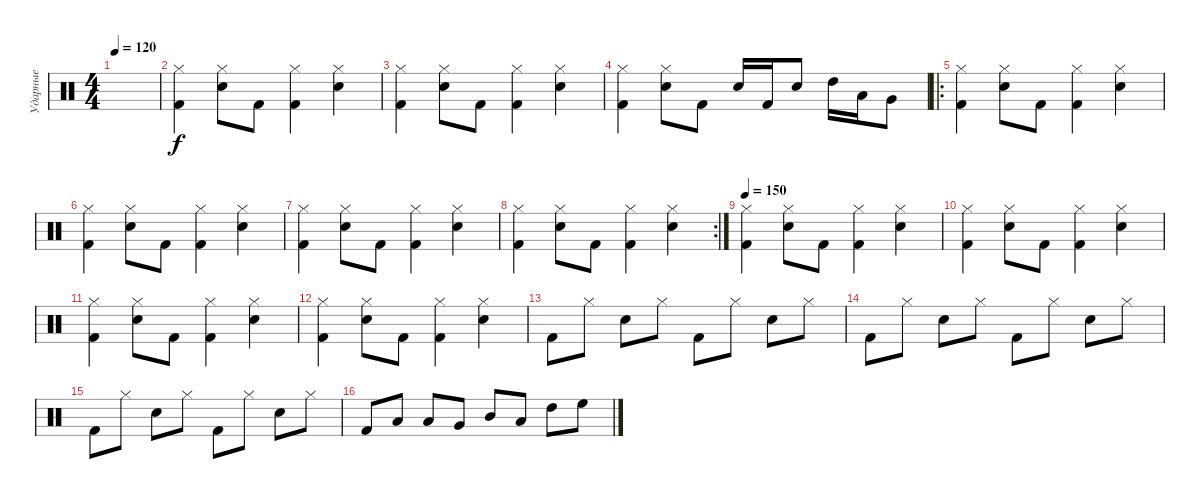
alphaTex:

\track ("Ударные" "Ударные") {instrument percussion}
\staff {score}
\articulation defaults
\ts (4 4)
\tempo 120
\clef neutral
\ks c
|
\ks aminor
("Hi-Hat (closed)" "Kick (hit) 2").4 ("Hi-Hat (closed)" "Electric Snare (hit)").8 "Kick (hit) 2".8 ("Hi-Hat (closed)" "Kick (hit) 2").4 ("Hi-Hat (closed)" "Electric Snare (hit)").4 |
("Hi-Hat (closed)" "Kick (hit) 2").4 ("Hi-Hat (closed)" "Electric Snare (hit)").8 "Kick (hit) 2".8 ("Hi-Hat (closed)" "Kick (hit) 2").4 ("Hi-Hat (closed)" "Electric Snare (hit)").4 |
\ks c
("Hi-Hat (closed)" "Kick (hit) 2").4 ("Hi-Hat (closed)" "Electric Snare (hit)").8 "Kick (hit) 2".8 "Electric Snare (hit)".16 "Kick (hit) 2".16 "Electric Snare (hit)".8 "High Tom (hit)".16 "Low Tom (hit)".16 "Very Low Tom (hit)".8 |
\ro
\ks aminor
("Hi-Hat (closed)" "Kick (hit) 2").4 ("Hi-Hat (closed)" "Electric Snare (hit)").8 "Kick (hit) 2".8 ("Hi-Hat (closed)" "Kick (hit) 2").4 ("Hi-Hat (closed)" "Electric Snare (hit)").4 |
("Hi-Hat (closed)" "Kick (hit) 2").4 ("Hi-Hat (closed)" "Electric Snare (hit)").8 "Kick (hit) 2".8 ("Hi-Hat (closed)" "Kick (hit) 2").4 ("Hi-Hat (closed)" "Electric Snare (hit)").4 |
("Hi-Hat (closed)" "Kick (hit) 2").4 ("Hi-Hat (closed)" "Electric Snare (hit)").8 "Kick (hit) 2".8 ("Hi-Hat (closed)" "Kick (hit) 2").4 ("Hi-Hat (closed)" "Electric Snare (hit)").4 |
\rc 2
("Hi-Hat (closed)" "Kick (hit) 2").4 ("Hi-Hat (closed)" "Electric Snare (hit)").8 "Kick (hit) 2".8 ("Hi-Hat (closed)" "Kick (hit) 2").4 ("Hi-Hat (closed)" "Electric Snare (hit)").4 |
\tempo 150
("Hi-Hat (closed)" "Kick (hit) 2").4 ("Hi-Hat (closed)" "Electric Snare (hit)").8 "Kick (hit) 2".8 ("Hi-Hat (closed)" "Kick (hit) 2").4 ("Hi-Hat (closed)" "Electric Snare (hit)").4 |
("Hi-Hat (closed)" "Kick (hit) 2").4 ("Hi-Hat (closed)" "Electric Snare (hit)").8 "Kick (hit) 2".8 ("Hi-Hat (closed)" "Kick (hit) 2").4 ("Hi-Hat (closed)" "Electric Snare (hit)").4 |
("Hi-Hat (closed)" "Kick (hit) 2").4 ("Hi-Hat (closed)" "Electric Snare (hit)").8 "Kick (hit) 2".8 ("Hi-Hat (closed)" "Kick (hit) 2").4 ("Hi-Hat (closed)" "Electric Snare (hit)").4 |
("Hi-Hat (closed)" "Kick (hit) 2").4 ("Hi-Hat (closed)" "Electric Snare (hit)").8 "Kick (hit) 2".8 ("Hi-Hat (closed)" "Kick (hit) 2").4 ("Hi-Hat (closed)" "Electric Snare (hit)").4 |
\ks c "Kick (hit) 2".8 "Hi-Hat (closed)".8 "Electric Snare (hit)".8 "Hi-Hat (closed)".8 "Kick (hit) 2".8 "Hi-Hat (closed)".8 "Electric Snare (hit)".8 "Hi-Hat (closed)".8
|
"Kick (hit) 2".8 "Hi-Hat (closed)".8 "Electric Snare (hit)".8 "Hi-Hat (closed)".8 "Kick (hit) 2".8 "Hi-Hat (closed)".8 "Electric Snare (hit)".8 "Hi-Hat (closed)".8 |
"Kick (hit) 2".8 "Hi-Hat (closed)".8 "Electric Snare (hit)".8 "Hi-Hat (closed)".8 "Kick (hit) 2".8 "Hi-Hat (closed)".8 "Electric Snare (hit)".8 "Hi-Hat (closed)".8 |
"Kick (hit) 2".8 "Low Floor Tom (hit)".8 "Low Tom (hit)".8 "Very Low Tom (hit)".8 "Mid Tom (hit)".8 "Low Tom (hit)".8 "High Tom (hit)".8 "High Floor Tom (hit)".8
